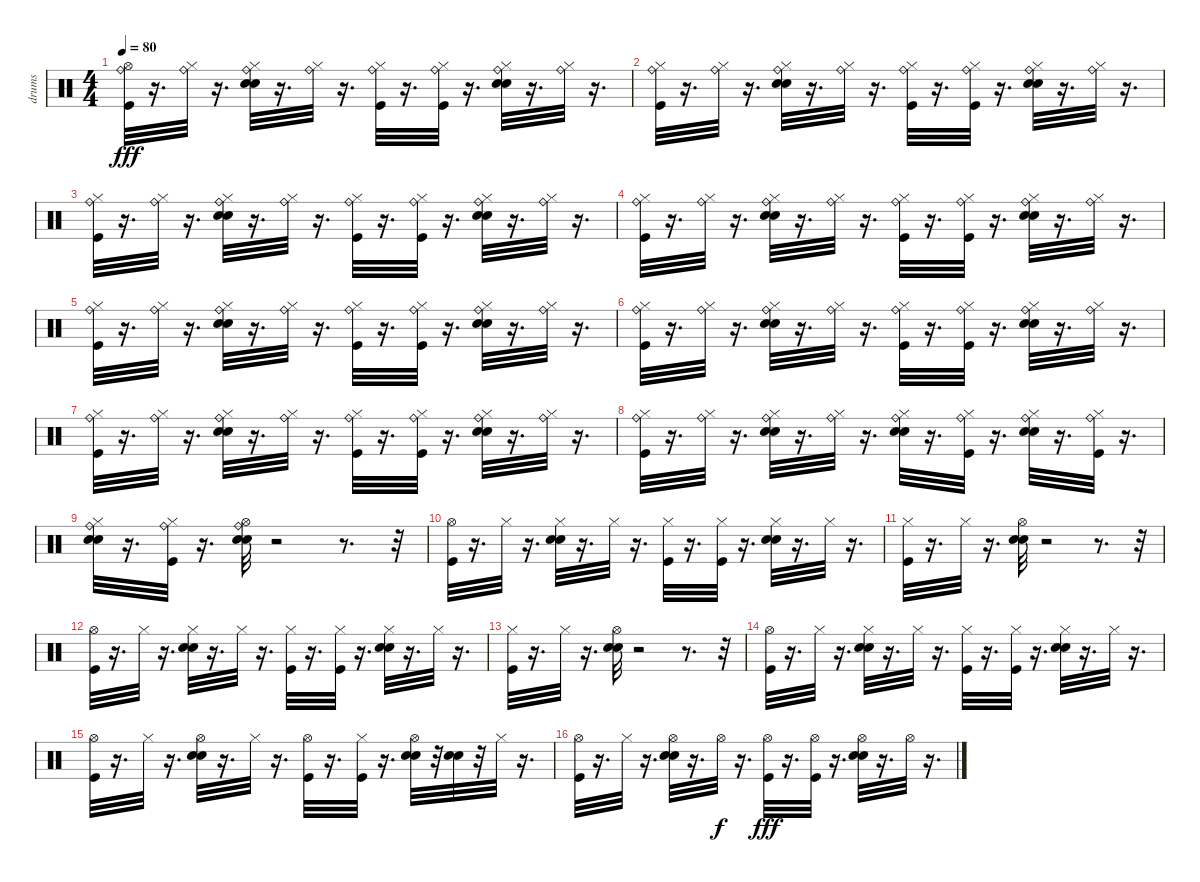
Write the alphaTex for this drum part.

\track ("drums" "drums") {instrument percussion}
\staff {score}
\articulation defaults
\ts (4 4)
\tempo 80
\clef neutral
\ks c
("Kick (hit)" "Ride (bell)" "Hi-Hat (open)").32{dy fff} r.16{d} ("Ride (bell)" "Hi-Hat (closed)").32 r.16{d} ("Ride (bell)" "Snare (hit) 2" "Electric Snare (hit)" "Hi-Hat (closed)").32 r.16{d} ("Ride (bell)" "Hi-Hat (closed)").32 r.16{d} ("Ride (bell)" "Kick (hit)" "Hi-Hat (closed)").32 r.16{d} ("Ride (bell)" "Kick (hit)" "Hi-Hat (closed)").32 r.16{d} ("Ride (bell)" "Snare (hit) 2" "Electric Snare (hit)" "Hi-Hat (closed)").32 r.16{d} ("Ride (bell)" "Hi-Hat (closed)").32 r.16{d} |
("Kick (hit)" "Ride (bell)" "Hi-Hat (closed)").32 r.16{d} ("Ride (bell)" "Hi-Hat (closed)").32 r.16{d} ("Ride (bell)" "Snare (hit) 2" "Electric Snare (hit)" "Hi-Hat (closed)").32 r.16{d} ("Ride (bell)" "Hi-Hat (closed)").32 r.16{d} ("Ride (bell)" "Kick (hit)" "Hi-Hat (closed)").32 r.16{d} ("Ride (bell)" "Kick (hit)" "Hi-Hat (closed)").32 r.16{d} ("Ride (bell)" "Snare (hit) 2" "Electric Snare (hit)" "Hi-Hat (closed)").32 r.16{d} ("Ride (bell)" "Hi-Hat (closed)").32 r.16{d} |
("Hi-Hat (closed)" "Ride (bell)" "Kick (hit)").32 r.16{d} ("Ride (bell)" "Hi-Hat (closed)").32 r.16{d} ("Ride (bell)" "Snare (hit) 2" "Electric Snare (hit)" "Hi-Hat (closed)").32 r.16{d} ("Ride (bell)" "Hi-Hat (closed)").32 r.16{d} ("Ride (bell)" "Kick (hit)" "Hi-Hat (closed)").32 r.16{d} ("Ride (bell)" "Kick (hit)" "Hi-Hat (closed)").32 r.16{d} ("Ride (bell)" "Snare (hit) 2" "Electric Snare (hit)" "Hi-Hat (closed)").32 r.16{d} ("Ride (bell)" "Hi-Hat (closed)").32 r.16{d} |
("Hi-Hat (closed)" "Ride (bell)" "Kick (hit)").32 r.16{d} ("Ride (bell)" "Hi-Hat (closed)").32 r.16{d} ("Ride (bell)" "Snare (hit) 2" "Electric Snare (hit)" "Hi-Hat (closed)").32 r.16{d} ("Ride (bell)" "Hi-Hat (closed)").32 r.16{d} ("Ride (bell)" "Kick (hit)" "Hi-Hat (closed)").32 r.16{d} ("Ride (bell)" "Kick (hit)" "Hi-Hat (closed)").32 r.16{d} ("Ride (bell)" "Snare (hit) 2" "Electric Snare (hit)" "Hi-Hat (closed)").32 r.16{d} ("Ride (bell)" "Hi-Hat (closed)").32 r.16{d} |
("Kick (hit)" "Ride (bell)" "Hi-Hat (closed)").32 r.16{d} ("Ride (bell)" "Hi-Hat (closed)").32 r.16{d} ("Ride (bell)" "Snare (hit) 2" "Electric Snare (hit)" "Hi-Hat (closed)").32 r.16{d} ("Ride (bell)" "Hi-Hat (closed)").32 r.16{d} ("Ride (bell)" "Kick (hit)" "Hi-Hat (closed)").32 r.16{d} ("Ride (bell)" "Kick (hit)" "Hi-Hat (closed)").32 r.16{d} ("Ride (bell)" "Snare (hit) 2" "Electric Snare (hit)" "Hi-Hat (closed)").32 r.16{d} ("Ride (bell)" "Hi-Hat (closed)").32 r.16{d} |
("Hi-Hat (closed)" "Ride (bell)" "Kick (hit)").32 r.16{d} ("Ride (bell)" "Hi-Hat (closed)").32 r.16{d} ("Ride (bell)" "Snare (hit) 2" "Electric Snare (hit)" "Hi-Hat (closed)").32 r.16{d} ("Ride (bell)" "Hi-Hat (closed)").32 r.16{d} ("Ride (bell)" "Kick (hit)" "Hi-Hat (closed)").32 r.16{d} ("Ride (bell)" "Kick (hit)" "Hi-Hat (closed)").32 r.16{d} ("Ride (bell)" "Snare (hit) 2" "Electric Snare (hit)" "Hi-Hat (closed)").32 r.16{d} ("Ride (bell)" "Hi-Hat (closed)").32 r.16{d} |
("Kick (hit)" "Ride (bell)" "Hi-Hat (closed)").32 r.16{d} ("Ride (bell)" "Hi-Hat (closed)").32 r.16{d} ("Ride (bell)" "Snare (hit) 2" "Electric Snare (hit)" "Hi-Hat (closed)").32 r.16{d} ("Ride (bell)" "Hi-Hat (closed)").32 r.16{d} ("Ride (bell)" "Kick (hit)" "Hi-Hat (closed)").32 r.16{d} ("Ride (bell)" "Kick (hit)" "Hi-Hat (closed)").32 r.16{d} ("Ride (bell)" "Snare (hit) 2" "Electric Snare (hit)" "Hi-Hat (closed)").32 r.16{d} ("Ride (bell)" "Hi-Hat (closed)").32 r.16{d} |
("Hi-Hat (closed)" "Ride (bell)" "Kick (hit)").32 r.16{d} ("Ride (bell)" "Hi-Hat (closed)").32 r.16{d} ("Ride (bell)" "Snare (hit) 2" "Electric Snare (hit)" "Hi-Hat (closed)").32 r.16{d} ("Ride (bell)" "Hi-Hat (closed)").32 r.16{d} ("Ride (bell)" "Hi-Hat (closed)" "Snare (hit) 2" "Electric Snare (hit)").32 r.16{d} ("Ride (bell)" "Kick (hit)" "Hi-Hat (closed)").32 r.16{d} ("Ride (bell)" "Snare (hit) 2" "Electric Snare (hit)" "Hi-Hat (closed)").32 r.16{d} ("Ride (bell)" "Hi-Hat (closed)" "Kick (hit)").32 r.16{d} |
("Snare (hit) 2" "Electric Snare (hit)" "Hi-Hat (closed)" "Ride (bell)").32 r.16{d} ("Kick (hit)" "Hi-Hat (closed)" "Ride (bell)").32 r.16{d} ("Snare (hit) 2" "Electric Snare (hit)" "Hi-Hat (open)" "Ride (bell)").32 r.2 r.8{d} r.32 |
("Kick (hit)" "Hi-Hat (open)").32 r.16{d} "Hi-Hat (closed)".32 r.16{d} ("Snare (hit) 2" "Electric Snare (hit)" "Hi-Hat (closed)").32 r.16{d} "Hi-Hat (closed)".32 r.16{d} ("Kick (hit)" "Hi-Hat (closed)").32 r.16{d} ("Kick (hit)" "Hi-Hat (closed)").32 r.16{d} ("Snare (hit) 2" "Electric Snare (hit)" "Hi-Hat (closed)").32 r.16{d} "Hi-Hat (closed)".32 r.16{d} |
("Kick (hit)" "Hi-Hat (closed)").32 r.16{d} "Hi-Hat (closed)".32 r.16{d} ("Snare (hit) 2" "Electric Snare (hit)" "Hi-Hat (open)").32 r.2 r.8{d} r.32 |
("Hi-Hat (open)" "Kick (hit)").32 r.16{d} "Hi-Hat (closed)".32 r.16{d} ("Snare (hit) 2" "Electric Snare (hit)" "Hi-Hat (closed)").32 r.16{d} "Hi-Hat (closed)".32 r.16{d} ("Kick (hit)" "Hi-Hat (closed)").32 r.16{d} ("Kick (hit)" "Hi-Hat (closed)").32 r.16{d} ("Snare (hit) 2" "Electric Snare (hit)" "Hi-Hat (closed)").32 r.16{d} "Hi-Hat (closed)".32 r.16{d} |
("Kick (hit)" "Hi-Hat (closed)").32 r.16{d} "Hi-Hat (closed)".32 r.16{d} ("Snare (hit) 2" "Electric Snare (hit)" "Hi-Hat (open)").32 r.2 r.8{d} r.32 |
("Kick (hit)" "Hi-Hat (open)").32 r.16{d} "Hi-Hat (closed)".32 r.16{d} ("Snare (hit) 2" "Electric Snare (hit)" "Hi-Hat (closed)").32 r.16{d} "Hi-Hat (closed)".32 r.16{d} ("Kick (hit)" "Hi-Hat (closed)").32 r.16{d} ("Kick (hit)" "Hi-Hat (closed)").32 r.16{d} ("Snare (hit) 2" "Electric Snare (hit)" "Hi-Hat (closed)").32 r.16{d} "Hi-Hat (closed)".32 r.16{d} |
("Kick (hit)" "Hi-Hat (open)").32 r.16{d} "Hi-Hat (closed)".32 r.16{d} ("Snare (hit) 2" "Electric Snare (hit)" "Hi-Hat (open)").32 r.16{d} "Hi-Hat (closed)".32 r.16{d} ("Hi-Hat (open)" "Kick (hit)").32 r.16{d} ("Hi-Hat (closed)" "Kick (hit)").32 r.16{d} ("Hi-Hat (open)" "Snare (hit) 2" "Electric Snare (hit)").32 r.32 ("Electric Snare (hit)" "Snare (hit) 2").32 r.32 "Hi-Hat (closed)".32 r.16{d} |
("Hi-Hat (open)" "Kick (hit)").32 r.16{d} "Hi-Hat (closed)".32 r.16{d} ("Snare (hit) 2" "Electric Snare (hit)" "Hi-Hat (open)").32 r.16{d} "Hi-Hat (open)".32{dy f} r.16{d} ("Kick (hit)" "Hi-Hat (open)").32{dy fff} r.16{d} ("Kick (hit)" "Hi-Hat (open)").32 r.16{d} ("Snare (hit) 2" "Electric Snare (hit)" "Hi-Hat (open)").32 r.16{d} "Hi-Hat (open)".32 r.16{d}
